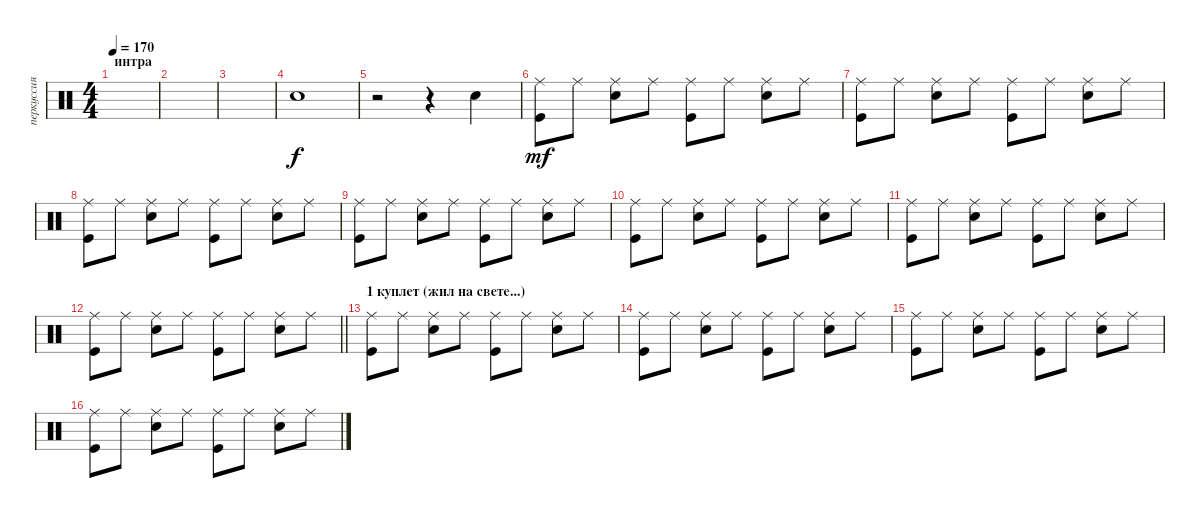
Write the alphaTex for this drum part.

\track ("перкуссия" "перкуссия") {instrument percussion}
\staff {score}
\articulation defaults
\ts (4 4)
\section ("" "интра")
\tempo 170
\clef neutral
\ks c
|
|
|
"Snare (hit) 2".1 |
r.2 r.4 "Snare (hit) 2".4 |
("Ride (middle)" "Kick (hit)").8{dy mf} "Ride (middle)".8 ("Ride (middle)" "Snare (hit) 2").8 "Ride (middle)".8 ("Ride (middle)" "Kick (hit)").8 "Ride (middle)".8 ("Ride (middle)" "Snare (hit) 2").8 "Ride (middle)".8 |
("Ride (middle)" "Kick (hit)").8 "Ride (middle)".8 ("Ride (middle)" "Snare (hit) 2").8 "Ride (middle)".8 ("Ride (middle)" "Kick (hit)").8 "Ride (middle)".8 ("Ride (middle)" "Snare (hit) 2").8 "Ride (middle)".8 |
("Ride (middle)" "Kick (hit)").8 "Ride (middle)".8 ("Ride (middle)" "Snare (hit) 2").8 "Ride (middle)".8 ("Ride (middle)" "Kick (hit)").8 "Ride (middle)".8 ("Ride (middle)" "Snare (hit) 2").8 "Ride (middle)".8 |
("Ride (middle)" "Kick (hit)").8 "Ride (middle)".8 ("Ride (middle)" "Snare (hit) 2").8 "Ride (middle)".8 ("Ride (middle)" "Kick (hit)").8 "Ride (middle)".8 ("Ride (middle)" "Snare (hit) 2").8 "Ride (middle)".8 |
("Ride (middle)" "Kick (hit)").8 "Ride (middle)".8 ("Ride (middle)" "Snare (hit) 2").8 "Ride (middle)".8 ("Ride (middle)" "Kick (hit)").8 "Ride (middle)".8 ("Ride (middle)" "Snare (hit) 2").8 "Ride (middle)".8 |
("Ride (middle)" "Kick (hit)").8 "Ride (middle)".8 ("Ride (middle)" "Snare (hit) 2").8 "Ride (middle)".8 ("Ride (middle)" "Kick (hit)").8 "Ride (middle)".8 ("Ride (middle)" "Snare (hit) 2").8 "Ride (middle)".8 |
\barLineRight lightlight
("Ride (middle)" "Kick (hit)").8 "Ride (middle)".8 ("Ride (middle)" "Snare (hit) 2").8 "Ride (middle)".8 ("Ride (middle)" "Kick (hit)").8 "Ride (middle)".8 ("Ride (middle)" "Snare (hit) 2").8 "Ride (middle)".8 |
\section ("" "1 куплет (жил на свете...)")
("Ride (middle)" "Kick (hit)").8 "Ride (middle)".8 ("Ride (middle)" "Snare (hit) 2").8 "Ride (middle)".8 ("Ride (middle)" "Kick (hit)").8 "Ride (middle)".8 ("Ride (middle)" "Snare (hit) 2").8 "Ride (middle)".8 |
("Ride (middle)" "Kick (hit)").8 "Ride (middle)".8 ("Ride (middle)" "Snare (hit) 2").8 "Ride (middle)".8 ("Ride (middle)" "Kick (hit)").8 "Ride (middle)".8 ("Ride (middle)" "Snare (hit) 2").8 "Ride (middle)".8 |
("Ride (middle)" "Kick (hit)").8 "Ride (middle)".8 ("Ride (middle)" "Snare (hit) 2").8 "Ride (middle)".8 ("Ride (middle)" "Kick (hit)").8 "Ride (middle)".8 ("Ride (middle)" "Snare (hit) 2").8 "Ride (middle)".8 |
("Ride (middle)" "Kick (hit)").8 "Ride (middle)".8 ("Ride (middle)" "Snare (hit) 2").8 "Ride (middle)".8 ("Ride (middle)" "Kick (hit)").8 "Ride (middle)".8 ("Ride (middle)" "Snare (hit) 2").8 "Ride (middle)".8
